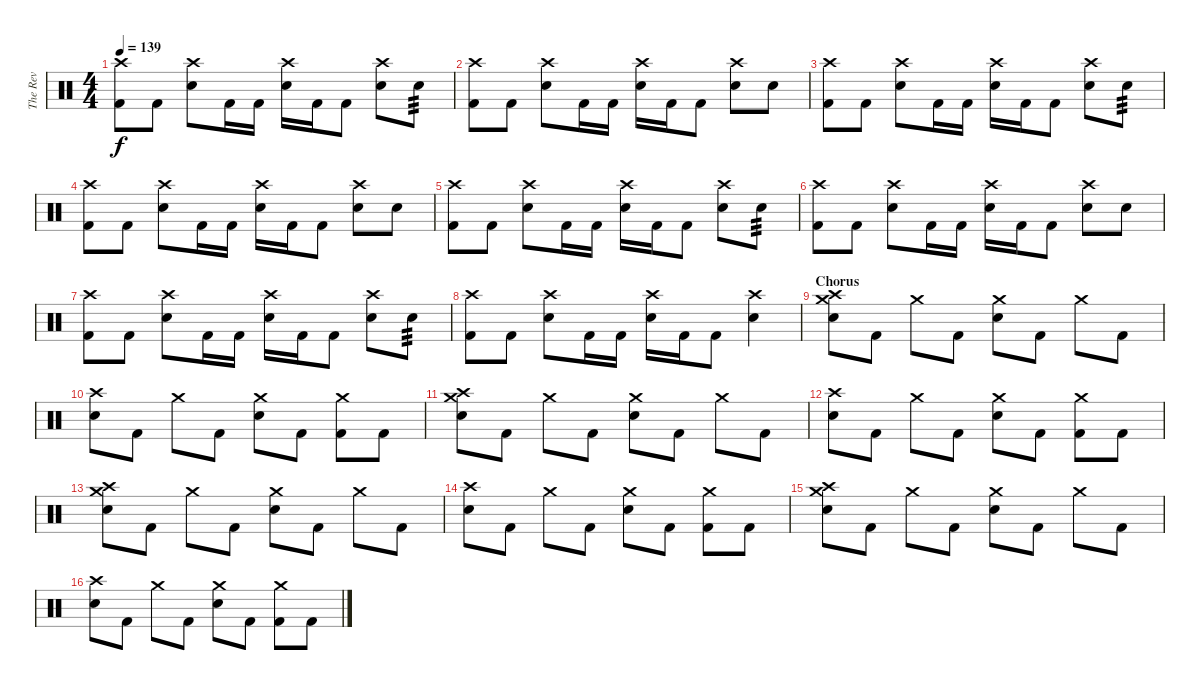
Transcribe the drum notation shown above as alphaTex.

\track ("The Rev" "The Rev") {instrument percussion}
\staff {score}
\articulation defaults
\ts (4 4)
\tempo 139
\clef neutral
\ks c
("Crash high (hit)" "Kick (hit) 2").8{dy f} "Kick (hit) 2".8 ("Crash high (hit)" "Electric Snare (hit)").8 "Kick (hit) 2".16 "Kick (hit) 2".16 ("Crash high (hit)" "Electric Snare (hit)").16 "Kick (hit) 2".16 "Kick (hit) 2".8 ("Crash high (hit)" "Electric Snare (hit)").8 "Electric Snare (hit)".8{tp 3} |
("Crash high (hit)" "Kick (hit) 2").8 "Kick (hit) 2".8 ("Crash high (hit)" "Electric Snare (hit)").8 "Kick (hit) 2".16 "Kick (hit) 2".16 ("Crash high (hit)" "Electric Snare (hit)").16 "Kick (hit) 2".16 "Kick (hit) 2".8 ("Crash high (hit)" "Electric Snare (hit)").8 "Electric Snare (hit)".8 |
("Crash high (hit)" "Kick (hit) 2").8 "Kick (hit) 2".8 ("Crash high (hit)" "Electric Snare (hit)").8 "Kick (hit) 2".16 "Kick (hit) 2".16 ("Crash high (hit)" "Electric Snare (hit)").16 "Kick (hit) 2".16 "Kick (hit) 2".8 ("Crash high (hit)" "Electric Snare (hit)").8 "Electric Snare (hit)".8{tp 3} |
("Crash high (hit)" "Kick (hit) 2").8 "Kick (hit) 2".8 ("Crash high (hit)" "Electric Snare (hit)").8 "Kick (hit) 2".16 "Kick (hit) 2".16 ("Crash high (hit)" "Electric Snare (hit)").16 "Kick (hit) 2".16 "Kick (hit) 2".8 ("Crash high (hit)" "Electric Snare (hit)").8 "Electric Snare (hit)".8 |
("Crash high (hit)" "Kick (hit) 2").8 "Kick (hit) 2".8 ("Crash high (hit)" "Electric Snare (hit)").8 "Kick (hit) 2".16 "Kick (hit) 2".16 ("Crash high (hit)" "Electric Snare (hit)").16 "Kick (hit) 2".16 "Kick (hit) 2".8 ("Crash high (hit)" "Electric Snare (hit)").8 "Electric Snare (hit)".8{tp 3} |
("Crash high (hit)" "Kick (hit) 2").8 "Kick (hit) 2".8 ("Crash high (hit)" "Electric Snare (hit)").8 "Kick (hit) 2".16 "Kick (hit) 2".16 ("Crash high (hit)" "Electric Snare (hit)").16 "Kick (hit) 2".16 "Kick (hit) 2".8 ("Crash high (hit)" "Electric Snare (hit)").8 "Electric Snare (hit)".8 |
("Crash high (hit)" "Kick (hit) 2").8 "Kick (hit) 2".8 ("Crash high (hit)" "Electric Snare (hit)").8 "Kick (hit) 2".16 "Kick (hit) 2".16 ("Crash high (hit)" "Electric Snare (hit)").16 "Kick (hit) 2".16 "Kick (hit) 2".8 ("Crash high (hit)" "Electric Snare (hit)").8 "Electric Snare (hit)".8{tp 3} |
("Crash high (hit)" "Kick (hit) 2").8 "Kick (hit) 2".8 ("Crash high (hit)" "Electric Snare (hit)").8 "Kick (hit) 2".16 "Kick (hit) 2".16 ("Crash high (hit)" "Electric Snare (hit)").16 "Kick (hit) 2".16 "Kick (hit) 2".8 ("Crash high (hit)" "Electric Snare (hit)").4 |
\section ("" "Chorus")
("Crash high (hit)" "Crash medium (hit)" "Electric Snare (hit)").8 "Kick (hit) 2".8 "Crash medium (hit)".8 "Kick (hit) 2".8 ("Crash medium (hit)" "Electric Snare (hit)").8 "Kick (hit) 2".8 "Crash medium (hit)".8 "Kick (hit) 2".8 |
("Crash high (hit)" "Electric Snare (hit)").8 "Kick (hit) 2".8 "Crash medium (hit)".8 "Kick (hit) 2".8 ("Crash medium (hit)" "Electric Snare (hit)").8 "Kick (hit) 2".8 ("Crash medium (hit)" "Kick (hit) 2").8 "Kick (hit) 2".8 |
("Crash high (hit)" "Crash medium (hit)" "Electric Snare (hit)").8 "Kick (hit) 2".8 "Crash medium (hit)".8 "Kick (hit) 2".8 ("Crash medium (hit)" "Electric Snare (hit)").8 "Kick (hit) 2".8 "Crash medium (hit)".8 "Kick (hit) 2".8 |
("Crash high (hit)" "Electric Snare (hit)").8 "Kick (hit) 2".8 "Crash medium (hit)".8 "Kick (hit) 2".8 ("Crash medium (hit)" "Electric Snare (hit)").8 "Kick (hit) 2".8 ("Crash medium (hit)" "Kick (hit) 2").8 "Kick (hit) 2".8 |
("Crash high (hit)" "Crash medium (hit)" "Electric Snare (hit)").8 "Kick (hit) 2".8 "Crash medium (hit)".8 "Kick (hit) 2".8 ("Crash medium (hit)" "Electric Snare (hit)").8 "Kick (hit) 2".8 "Crash medium (hit)".8 "Kick (hit) 2".8 |
("Crash high (hit)" "Electric Snare (hit)").8 "Kick (hit) 2".8 "Crash medium (hit)".8 "Kick (hit) 2".8 ("Crash medium (hit)" "Electric Snare (hit)").8 "Kick (hit) 2".8 ("Crash medium (hit)" "Kick (hit) 2").8 "Kick (hit) 2".8 |
("Crash high (hit)" "Crash medium (hit)" "Electric Snare (hit)").8 "Kick (hit) 2".8 "Crash medium (hit)".8 "Kick (hit) 2".8 ("Crash medium (hit)" "Electric Snare (hit)").8 "Kick (hit) 2".8 "Crash medium (hit)".8 "Kick (hit) 2".8 |
("Crash high (hit)" "Electric Snare (hit)").8 "Kick (hit) 2".8 "Crash medium (hit)".8 "Kick (hit) 2".8 ("Crash medium (hit)" "Electric Snare (hit)").8 "Kick (hit) 2".8 ("Crash medium (hit)" "Kick (hit) 2").8 "Kick (hit) 2".8
